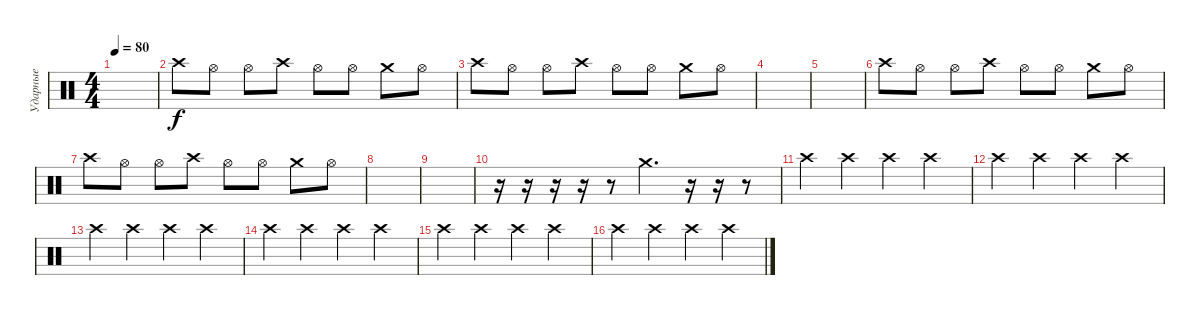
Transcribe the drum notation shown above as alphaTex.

\track ("Ударные" "Ударные") {instrument percussion}
\staff {score}
\articulation defaults
\ts (4 4)
\tempo 80
\clef neutral
\ks c
|
"Crash high (hit)".8 "Hi-Hat (open)".8 "Hi-Hat (open)".8 "Crash high (hit)".8 "Hi-Hat (open)".8 "Hi-Hat (open)".8 "Crash medium (hit)".8 "Hi-Hat (open)".8 |
"Crash high (hit)".8 "Hi-Hat (open)".8 "Hi-Hat (open)".8 "Crash high (hit)".8 "Hi-Hat (open)".8 "Hi-Hat (open)".8 "Crash medium (hit)".8 "Hi-Hat (open)".8 |
|
|
"Crash high (hit)".8 "Hi-Hat (open)".8 "Hi-Hat (open)".8 "Crash high (hit)".8 "Hi-Hat (open)".8 "Hi-Hat (open)".8 "Crash medium (hit)".8 "Hi-Hat (open)".8 |
"Crash high (hit)".8 "Hi-Hat (open)".8 "Hi-Hat (open)".8 "Crash high (hit)".8 "Hi-Hat (open)".8 "Hi-Hat (open)".8 "Crash medium (hit)".8 "Hi-Hat (open)".8 |
|
|
r.16 r.16 r.16 r.16 r.8 "Crash medium (hit)".4{d} r.16 r.16 r.8 |
"Crash high (hit)".4 "Crash high (hit)".4 "Crash high (hit)".4 "Crash high (hit)".4 |
"Crash high (hit)".4 "Crash high (hit)".4 "Crash high (hit)".4 "Crash high (hit)".4 |
"Crash high (hit)".4 "Crash high (hit)".4 "Crash high (hit)".4 "Crash high (hit)".4 |
"Crash high (hit)".4 "Crash high (hit)".4 "Crash high (hit)".4 "Crash high (hit)".4 |
"Crash high (hit)".4 "Crash high (hit)".4 "Crash high (hit)".4 "Crash high (hit)".4 |
"Crash high (hit)".4 "Crash high (hit)".4 "Crash high (hit)".4 "Crash high (hit)".4
